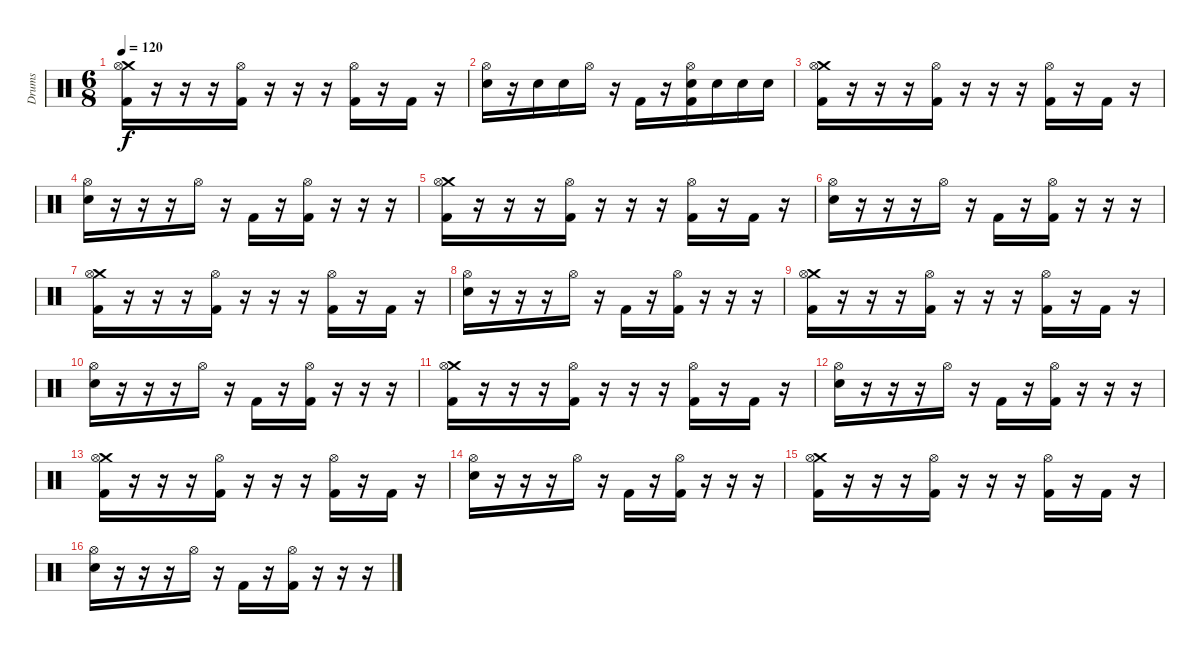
\track ("Drums" "Drums") {instrument percussion}
\staff {score}
\articulation defaults
\ts (6 8)
\tempo 120
\clef neutral
\ks c
("Crash medium (hit)" "Hi-Hat (open)" "Kick (hit) 2").16{dy f} r.16 r.16 r.16 ("Hi-Hat (open)" "Kick (hit) 2").16 r.16 r.16 r.16 ("Hi-Hat (open)" "Kick (hit) 2").16 r.16 "Kick (hit) 2".16 r.16 |
("Hi-Hat (open)" "Electric Snare (hit)").16 r.16 "Electric Snare (hit)".16 "Electric Snare (hit)".16 "Hi-Hat (open)".16 r.16 "Kick (hit) 2".16 r.16 ("Hi-Hat (open)" "Electric Snare (hit)" "Kick (hit) 2").16 "Electric Snare (hit)".16 "Electric Snare (hit)".16 "Electric Snare (hit)".16 |
("Crash medium (hit)" "Hi-Hat (open)" "Kick (hit) 2").16 r.16 r.16 r.16 ("Hi-Hat (open)" "Kick (hit) 2").16 r.16 r.16 r.16 ("Hi-Hat (open)" "Kick (hit) 2").16 r.16 "Kick (hit) 2".16 r.16 |
("Hi-Hat (open)" "Electric Snare (hit)").16 r.16 r.16 r.16 "Hi-Hat (open)".16 r.16 "Kick (hit) 2".16 r.16 ("Hi-Hat (open)" "Kick (hit) 2").16 r.16 r.16 r.16 |
("Crash medium (hit)" "Hi-Hat (open)" "Kick (hit) 2").16 r.16 r.16 r.16 ("Hi-Hat (open)" "Kick (hit) 2").16 r.16 r.16 r.16 ("Hi-Hat (open)" "Kick (hit) 2").16 r.16 "Kick (hit) 2".16 r.16 |
("Hi-Hat (open)" "Electric Snare (hit)").16 r.16 r.16 r.16 "Hi-Hat (open)".16 r.16 "Kick (hit) 2".16 r.16 ("Hi-Hat (open)" "Kick (hit) 2").16 r.16 r.16 r.16 |
("Crash medium (hit)" "Hi-Hat (open)" "Kick (hit) 2").16 r.16 r.16 r.16 ("Hi-Hat (open)" "Kick (hit) 2").16 r.16 r.16 r.16 ("Hi-Hat (open)" "Kick (hit) 2").16 r.16 "Kick (hit) 2".16 r.16 |
("Hi-Hat (open)" "Electric Snare (hit)").16 r.16 r.16 r.16 "Hi-Hat (open)".16 r.16 "Kick (hit) 2".16 r.16 ("Hi-Hat (open)" "Kick (hit) 2").16 r.16 r.16 r.16 |
("Crash medium (hit)" "Hi-Hat (open)" "Kick (hit) 2").16 r.16 r.16 r.16 ("Hi-Hat (open)" "Kick (hit) 2").16 r.16 r.16 r.16 ("Hi-Hat (open)" "Kick (hit) 2").16 r.16 "Kick (hit) 2".16 r.16 |
("Hi-Hat (open)" "Electric Snare (hit)").16 r.16 r.16 r.16 "Hi-Hat (open)".16 r.16 "Kick (hit) 2".16 r.16 ("Hi-Hat (open)" "Kick (hit) 2").16 r.16 r.16 r.16 |
("Crash medium (hit)" "Hi-Hat (open)" "Kick (hit) 2").16 r.16 r.16 r.16 ("Hi-Hat (open)" "Kick (hit) 2").16 r.16 r.16 r.16 ("Hi-Hat (open)" "Kick (hit) 2").16 r.16 "Kick (hit) 2".16 r.16 |
("Hi-Hat (open)" "Electric Snare (hit)").16 r.16 r.16 r.16 "Hi-Hat (open)".16 r.16 "Kick (hit) 2".16 r.16 ("Hi-Hat (open)" "Kick (hit) 2").16 r.16 r.16 r.16 |
("Crash medium (hit)" "Hi-Hat (open)" "Kick (hit) 2").16 r.16 r.16 r.16 ("Hi-Hat (open)" "Kick (hit) 2").16 r.16 r.16 r.16 ("Hi-Hat (open)" "Kick (hit) 2").16 r.16 "Kick (hit) 2".16 r.16 |
("Hi-Hat (open)" "Electric Snare (hit)").16 r.16 r.16 r.16 "Hi-Hat (open)".16 r.16 "Kick (hit) 2".16 r.16 ("Hi-Hat (open)" "Kick (hit) 2").16 r.16 r.16 r.16 |
("Crash medium (hit)" "Hi-Hat (open)" "Kick (hit) 2").16 r.16 r.16 r.16 ("Hi-Hat (open)" "Kick (hit) 2").16 r.16 r.16 r.16 ("Hi-Hat (open)" "Kick (hit) 2").16 r.16 "Kick (hit) 2".16 r.16 |
("Hi-Hat (open)" "Electric Snare (hit)").16 r.16 r.16 r.16 "Hi-Hat (open)".16 r.16 "Kick (hit) 2".16 r.16 ("Hi-Hat (open)" "Kick (hit) 2").16 r.16 r.16 r.16
